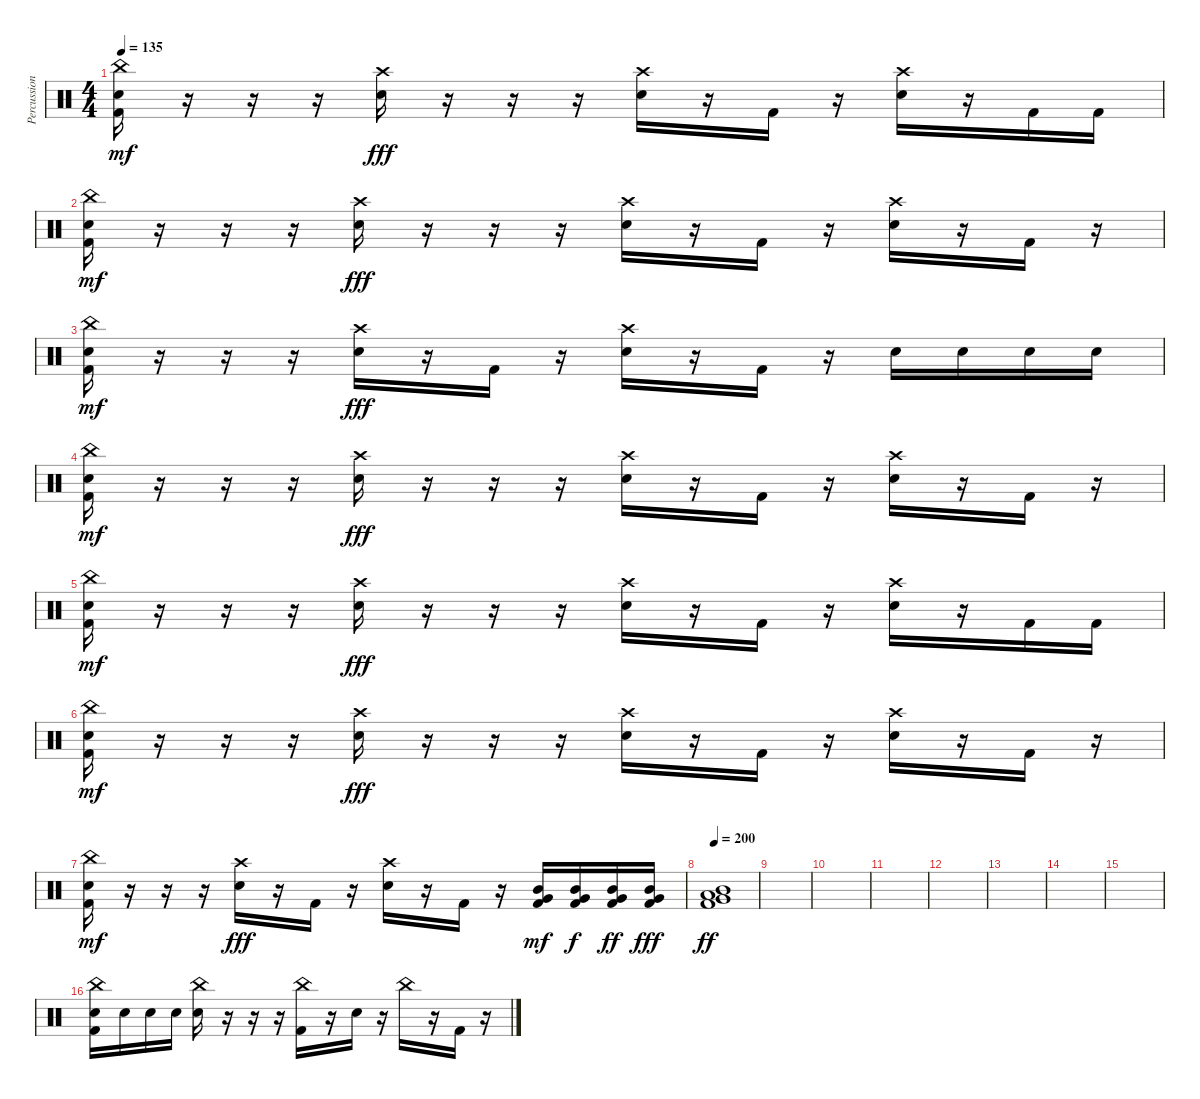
\track ("Percussion" "Percussion") {instrument percussion bank 255}
\staff {score}
\articulation defaults
\ts (4 4)
\tempo 135
\clef neutral
\ks c
("China (hit)" "Electric Snare (hit)" "Kick (hit) 2").16{dy mf} r.16 r.16 r.16 ("Crash high (hit)" "Electric Snare (hit)").16{dy fff} r.16 r.16 r.16 ("Crash high (hit)" "Electric Snare (hit)").16 r.16 "Kick (hit) 2".16 r.16 ("Crash high (hit)" "Electric Snare (hit)").16 r.16 "Kick (hit) 2".16 "Kick (hit) 2".16 |
("China (hit)" "Electric Snare (hit)" "Kick (hit) 2").16{dy mf} r.16 r.16 r.16 ("Crash high (hit)" "Electric Snare (hit)").16{dy fff} r.16 r.16 r.16 ("Crash high (hit)" "Electric Snare (hit)").16 r.16 "Kick (hit) 2".16 r.16 ("Crash high (hit)" "Electric Snare (hit)").16 r.16 "Kick (hit) 2".16 r.16 |
("China (hit)" "Electric Snare (hit)" "Kick (hit) 2").16{dy mf} r.16 r.16 r.16 ("Crash high (hit)" "Electric Snare (hit)").16{dy fff} r.16 "Kick (hit) 2".16 r.16 ("Crash high (hit)" "Electric Snare (hit)").16 r.16 "Kick (hit) 2".16 r.16 "Electric Snare (hit)".16 "Electric Snare (hit)".16 "Electric Snare (hit)".16 "Electric Snare (hit)".16 |
("China (hit)" "Electric Snare (hit)" "Kick (hit) 2").16{dy mf} r.16 r.16 r.16 ("Crash high (hit)" "Electric Snare (hit)").16{dy fff} r.16 r.16 r.16 ("Crash high (hit)" "Electric Snare (hit)").16 r.16 "Kick (hit) 2".16 r.16 ("Crash high (hit)" "Electric Snare (hit)").16 r.16 "Kick (hit) 2".16 r.16 |
("China (hit)" "Electric Snare (hit)" "Kick (hit) 2").16{dy mf} r.16 r.16 r.16 ("Crash high (hit)" "Electric Snare (hit)").16{dy fff} r.16 r.16 r.16 ("Crash high (hit)" "Electric Snare (hit)").16 r.16 "Kick (hit) 2".16 r.16 ("Crash high (hit)" "Electric Snare (hit)").16 r.16 "Kick (hit) 2".16 "Kick (hit) 2".16 |
("China (hit)" "Electric Snare (hit)" "Kick (hit) 2").16{dy mf} r.16 r.16 r.16 ("Crash high (hit)" "Electric Snare (hit)").16{dy fff} r.16 r.16 r.16 ("Crash high (hit)" "Electric Snare (hit)").16 r.16 "Kick (hit) 2".16 r.16 ("Crash high (hit)" "Electric Snare (hit)").16 r.16 "Kick (hit) 2".16 r.16 |
("China (hit)" "Electric Snare (hit)" "Kick (hit) 2").16{dy mf} r.16 r.16 r.16 ("Crash high (hit)" "Electric Snare (hit)").16{dy fff} r.16 "Kick (hit) 2".16 r.16 ("Crash high (hit)" "Electric Snare (hit)").16 r.16 "Kick (hit) 2".16 r.16 ("Very Low Tom (hit)" "Mid Tom (hit)" "Kick (hit) 2").16{dy mf} ("Very Low Tom (hit)" "Mid Tom (hit)" "Kick (hit) 2").16{dy f} ("Very Low Tom (hit)" "Mid Tom (hit)" "Kick (hit) 2").16{dy ff} ("Very Low Tom (hit)" "Mid Tom (hit)" "Kick (hit) 2").16{dy fff} |
\tempo 200
("Kick (hit) 2" "Very Low Tom (hit)" "Low Tom (hit)" "Mid Tom (hit)").1{dy ff} |
|
|
|
|
|
|
|
("China (hit)" "Kick (hit) 2" "Electric Snare (hit)").16 "Electric Snare (hit)".16 "Electric Snare (hit)".16 "Electric Snare (hit)".16 ("China (hit)" "Electric Snare (hit)").16 r.16 r.16 r.16 ("China (hit)" "Kick (hit) 2").16 r.16 "Electric Snare (hit)".16 r.16 "China (hit)".16 r.16 "Kick (hit) 2".16 r.16
